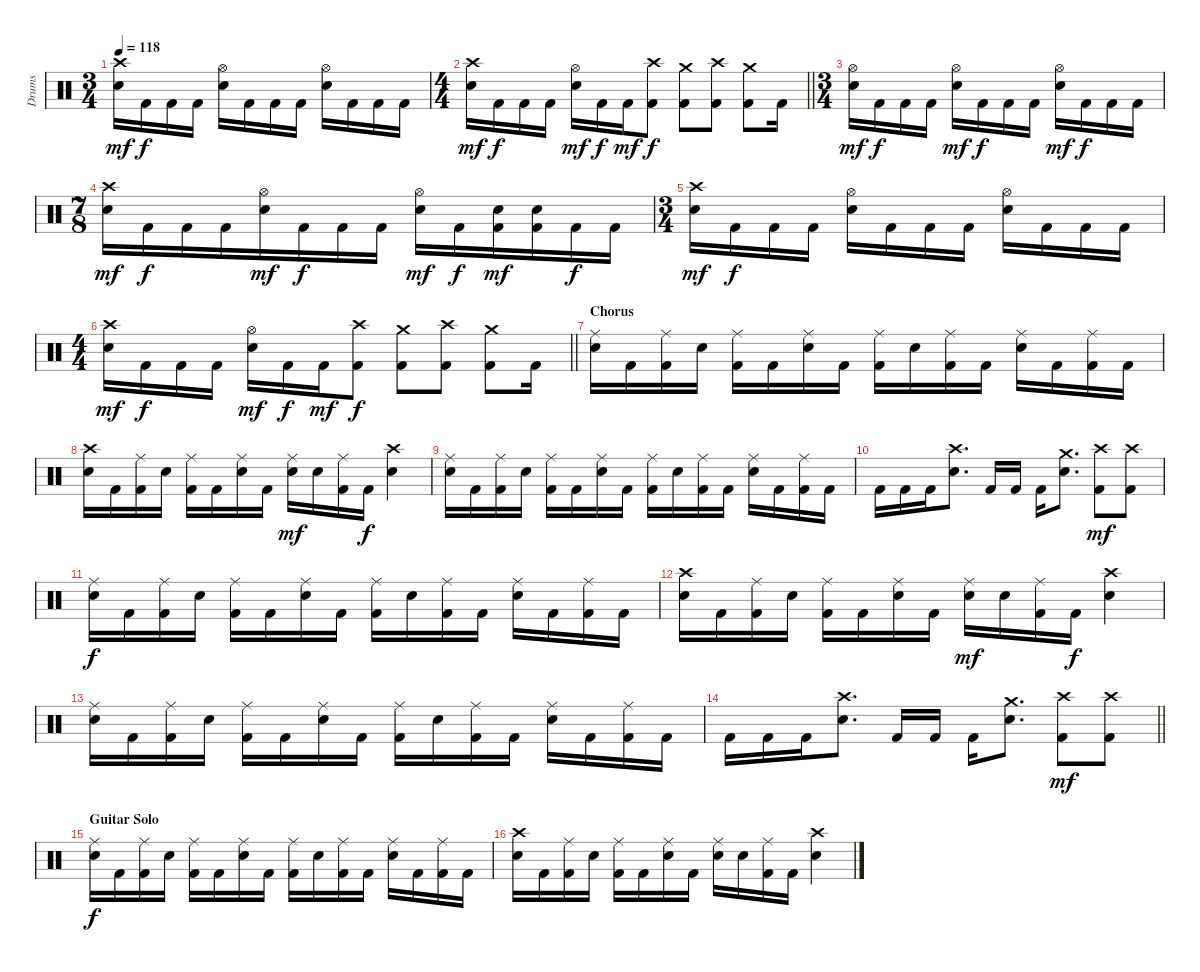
\track ("Drums" "Drums") {instrument percussion}
\staff {score}
\articulation defaults
\ts (3 4)
\tempo 118
\clef neutral
\ks aminor
("Crash high (hit)" "Snare (hit) 2").16{dy mf} "Kick (hit) 2".16{dy f} "Kick (hit) 2".16 "Kick (hit) 2".16 ("Hi-Hat (open)" "Snare (hit) 2").16 "Kick (hit) 2".16 "Kick (hit) 2".16 "Kick (hit) 2".16 ("Hi-Hat (open)" "Snare (hit) 2").16 "Kick (hit) 2".16 "Kick (hit) 2".16 "Kick (hit) 2".16 |
\ts (4 4)
\barLineRight lightlight
("Crash high (hit)" "Snare (hit) 2").16{dy mf} "Kick (hit) 2".16{dy f} "Kick (hit) 2".16 "Kick (hit) 2".16 ("Hi-Hat (open)" "Snare (hit) 2").16{dy mf} "Kick (hit) 2".16{dy f} "Kick (hit) 2".16{dy mf} ("Crash high (hit)" "Kick (hit) 2").8{dy f} ("Crash medium (hit)" "Kick (hit) 2").8 ("Crash high (hit)" "Kick (hit) 2").8 ("Crash medium (hit)" "Kick (hit) 2").8 "Kick (hit) 2".16 |
\ts (3 4)
("Hi-Hat (open)" "Snare (hit) 2").16{dy mf} "Kick (hit) 2".16{dy f} "Kick (hit) 2".16 "Kick (hit) 2".16 ("Hi-Hat (open)" "Snare (hit) 2").16{dy mf} "Kick (hit) 2".16{dy f} "Kick (hit) 2".16 "Kick (hit) 2".16 ("Hi-Hat (open)" "Snare (hit) 2").16{dy mf} "Kick (hit) 2".16{dy f} "Kick (hit) 2".16 "Kick (hit) 2".16 |
\ts (7 8)
("Crash high (hit)" "Snare (hit) 2").16{dy mf} "Kick (hit) 2".16{dy f} "Kick (hit) 2".16 "Kick (hit) 2".16 ("Hi-Hat (open)" "Snare (hit) 2").16{dy mf} "Kick (hit) 2".16{dy f} "Kick (hit) 2".16 "Kick (hit) 2".16 ("Hi-Hat (open)" "Snare (hit) 2").16{dy mf} "Kick (hit) 2".16{dy f} ("Snare (hit) 2" "Kick (hit) 2").16{dy mf} ("Snare (hit) 2" "Kick (hit) 2").16 "Kick (hit) 2".16{dy f} "Kick (hit) 2".16 |
\ts (3 4)
("Crash high (hit)" "Snare (hit) 2").16{dy mf} "Kick (hit) 2".16{dy f} "Kick (hit) 2".16 "Kick (hit) 2".16 ("Hi-Hat (open)" "Snare (hit) 2").16 "Kick (hit) 2".16 "Kick (hit) 2".16 "Kick (hit) 2".16 ("Hi-Hat (open)" "Snare (hit) 2").16 "Kick (hit) 2".16 "Kick (hit) 2".16 "Kick (hit) 2".16 |
\ts (4 4)
\barLineRight lightlight
("Crash high (hit)" "Snare (hit) 2").16{dy mf} "Kick (hit) 2".16{dy f} "Kick (hit) 2".16 "Kick (hit) 2".16 ("Hi-Hat (open)" "Snare (hit) 2").16{dy mf} "Kick (hit) 2".16{dy f} "Kick (hit) 2".16{dy mf} ("Crash high (hit)" "Kick (hit) 2").8{dy f} ("Crash medium (hit)" "Kick (hit) 2").8 ("Crash high (hit)" "Kick (hit) 2").8 ("Crash medium (hit)" "Kick (hit) 2").8 "Kick (hit) 2".16 |
\section ("" "Chorus")
("Ride (middle)" "Snare (hit) 2").16 "Kick (hit) 2".16 ("Ride (middle)" "Kick (hit) 2").16 "Snare (hit) 2".16 ("Ride (middle)" "Kick (hit) 2").16 "Kick (hit) 2".16 ("Ride (middle)" "Snare (hit) 2").16 "Kick (hit) 2".16 ("Ride (middle)" "Kick (hit) 2").16 "Snare (hit) 2".16 ("Ride (middle)" "Kick (hit) 2").16 "Kick (hit) 2".16 ("Ride (middle)" "Snare (hit) 2").16 "Kick (hit) 2".16 ("Ride (middle)" "Kick (hit) 2").16 "Kick (hit) 2".16 |
("Crash high (hit)" "Snare (hit) 2").16 "Kick (hit) 2".16 ("Ride (middle)" "Kick (hit) 2").16 "Snare (hit) 2".16 ("Ride (middle)" "Kick (hit) 2").16 "Kick (hit) 2".16 ("Ride (middle)" "Snare (hit) 2").16 "Kick (hit) 2".16 ("Ride (middle)" "Snare (hit) 2").16{dy mf} "Snare (hit) 2".16 ("Ride (middle)" "Kick (hit) 2").16 "Kick (hit) 2".16{dy f} ("Crash high (hit)" "Snare (hit) 2").4 |
("Ride (middle)" "Snare (hit) 2").16 "Kick (hit) 2".16 ("Ride (middle)" "Kick (hit) 2").16 "Snare (hit) 2".16 ("Ride (middle)" "Kick (hit) 2").16 "Kick (hit) 2".16 ("Ride (middle)" "Snare (hit) 2").16 "Kick (hit) 2".16 ("Ride (middle)" "Kick (hit) 2").16 "Snare (hit) 2".16 ("Ride (middle)" "Kick (hit) 2").16 "Kick (hit) 2".16 ("Ride (middle)" "Snare (hit) 2").16 "Kick (hit) 2".16 ("Ride (middle)" "Kick (hit) 2").16 "Kick (hit) 2".16 |
"Kick (hit) 2".16 "Kick (hit) 2".16 "Kick (hit) 2".16 ("Crash high (hit)" "Snare (hit) 2").8{d} "Kick (hit) 2".16 "Kick (hit) 2".16 "Kick (hit) 2".16 ("Crash medium (hit)" "Snare (hit) 2").8{d} ("Crash high (hit)" "Kick (hit) 2").8{dy mf} ("Crash high (hit)" "Kick (hit) 2").8 |
("Ride (middle)" "Snare (hit) 2").16{dy f} "Kick (hit) 2".16 ("Ride (middle)" "Kick (hit) 2").16 "Snare (hit) 2".16 ("Ride (middle)" "Kick (hit) 2").16 "Kick (hit) 2".16 ("Ride (middle)" "Snare (hit) 2").16 "Kick (hit) 2".16 ("Ride (middle)" "Kick (hit) 2").16 "Snare (hit) 2".16 ("Ride (middle)" "Kick (hit) 2").16 "Kick (hit) 2".16 ("Ride (middle)" "Snare (hit) 2").16 "Kick (hit) 2".16 ("Ride (middle)" "Kick (hit) 2").16 "Kick (hit) 2".16 |
("Crash high (hit)" "Snare (hit) 2").16 "Kick (hit) 2".16 ("Ride (middle)" "Kick (hit) 2").16 "Snare (hit) 2".16 ("Ride (middle)" "Kick (hit) 2").16 "Kick (hit) 2".16 ("Ride (middle)" "Snare (hit) 2").16 "Kick (hit) 2".16 ("Ride (middle)" "Snare (hit) 2").16{dy mf} "Snare (hit) 2".16 ("Ride (middle)" "Kick (hit) 2").16 "Kick (hit) 2".16{dy f} ("Crash high (hit)" "Snare (hit) 2").4 |
("Ride (middle)" "Snare (hit) 2").16 "Kick (hit) 2".16 ("Ride (middle)" "Kick (hit) 2").16 "Snare (hit) 2".16 ("Ride (middle)" "Kick (hit) 2").16 "Kick (hit) 2".16 ("Ride (middle)" "Snare (hit) 2").16 "Kick (hit) 2".16 ("Ride (middle)" "Kick (hit) 2").16 "Snare (hit) 2".16 ("Ride (middle)" "Kick (hit) 2").16 "Kick (hit) 2".16 ("Ride (middle)" "Snare (hit) 2").16 "Kick (hit) 2".16 ("Ride (middle)" "Kick (hit) 2").16 "Kick (hit) 2".16 |
\barLineRight lightlight "Kick (hit) 2".16 "Kick (hit) 2".16 "Kick (hit) 2".16
("Crash high (hit)" "Snare (hit) 2").8{d} "Kick (hit) 2".16 "Kick (hit) 2".16 "Kick (hit) 2".16 ("Crash medium (hit)" "Snare (hit) 2").8{d} ("Crash high (hit)" "Kick (hit) 2").8{dy mf} ("Crash high (hit)" "Kick (hit) 2").8 |
\section ("" "Guitar Solo")
("Ride (middle)" "Snare (hit) 2").16{dy f} "Kick (hit) 2".16 ("Ride (middle)" "Kick (hit) 2").16 "Snare (hit) 2".16 ("Ride (middle)" "Kick (hit) 2").16 "Kick (hit) 2".16 ("Ride (middle)" "Snare (hit) 2").16 "Kick (hit) 2".16 ("Ride (middle)" "Kick (hit) 2").16 "Snare (hit) 2".16 ("Ride (middle)" "Kick (hit) 2").16 "Kick (hit) 2".16 ("Ride (middle)" "Snare (hit) 2").16 "Kick (hit) 2".16 ("Ride (middle)" "Kick (hit) 2").16 "Kick (hit) 2".16 |
("Crash high (hit)" "Snare (hit) 2").16 "Kick (hit) 2".16 ("Ride (middle)" "Kick (hit) 2").16 "Snare (hit) 2".16 ("Ride (middle)" "Kick (hit) 2").16 "Kick (hit) 2".16 ("Ride (middle)" "Snare (hit) 2").16 "Kick (hit) 2".16 ("Ride (middle)" "Snare (hit) 2").16 "Snare (hit) 2".16 ("Ride (middle)" "Kick (hit) 2").16 "Kick (hit) 2".16 ("Crash high (hit)" "Snare (hit) 2").4
